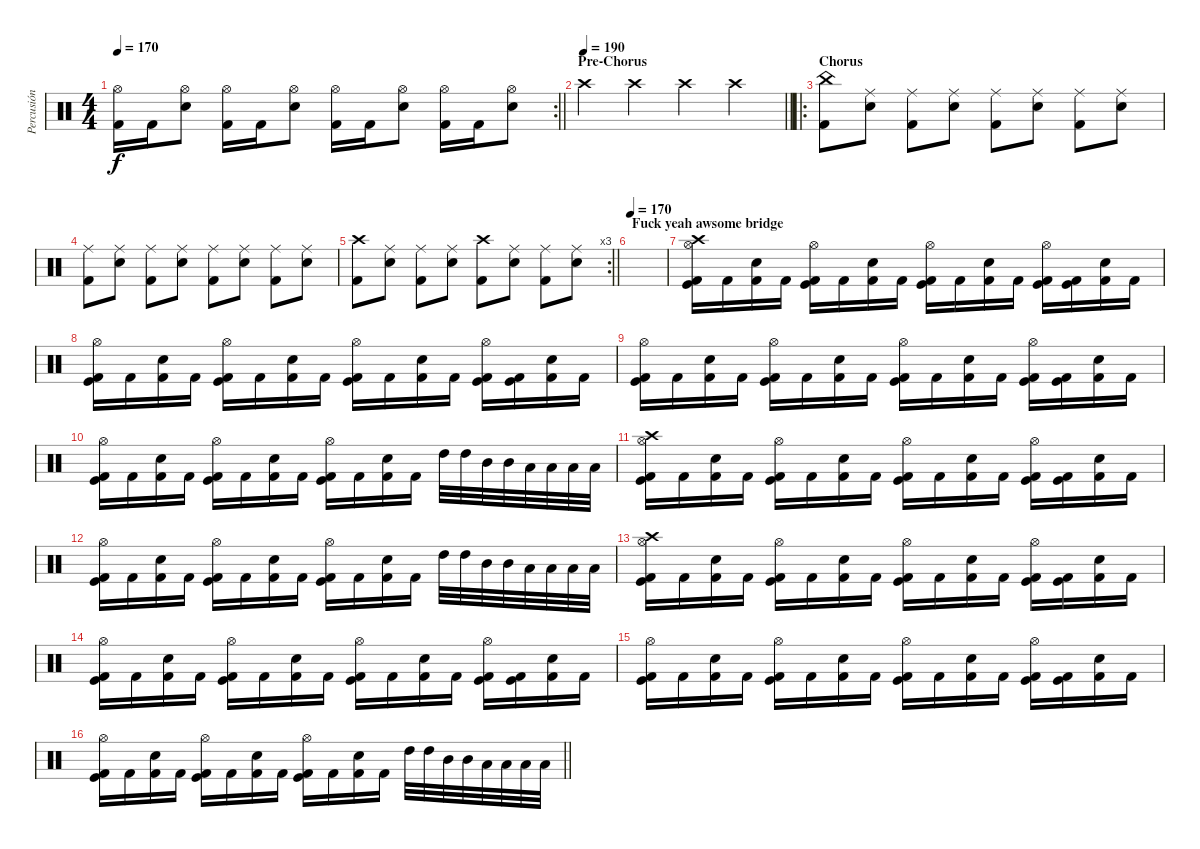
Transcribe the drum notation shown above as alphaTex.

\track ("Percusión" "Percusión") {instrument percussion}
\staff {score}
\articulation defaults
\rc 2
\ts (4 4)
\tempo 170
\clef neutral
\barLineRight lightlight
\ks c
("Hi-Hat (open)" "Kick (hit) 2").16{dy f} "Kick (hit) 2".16 ("Hi-Hat (open)" "Snare (hit) 2").8 ("Hi-Hat (open)" "Kick (hit) 2").16 "Kick (hit) 2".16 ("Hi-Hat (open)" "Snare (hit) 2").8 ("Hi-Hat (open)" "Kick (hit) 2").16 "Kick (hit) 2".16 ("Hi-Hat (open)" "Snare (hit) 2").8 ("Hi-Hat (open)" "Kick (hit) 2").16 "Kick (hit) 2".16 ("Hi-Hat (open)" "Snare (hit) 2").8 |
\section ("" "Pre-Chorus")
\tempo 190
\barLineRight lightlight "Crash high (hit)".4 "Crash high (hit)".4 "Crash high (hit)".4 "Crash high (hit)".4
|
\ro
\section ("" "Chorus")
("Kick (hit) 2" "China (hit)").8 ("Snare (hit) 2" "Ride (middle)").8 ("Kick (hit) 2" "Ride (middle)").8 ("Snare (hit) 2" "Ride (middle)").8 ("Kick (hit) 2" "Ride (middle)").8 ("Snare (hit) 2" "Ride (middle)").8 ("Kick (hit) 2" "Ride (middle)").8 ("Snare (hit) 2" "Ride (middle)").8 |
("Kick (hit) 2" "Ride (middle)").8 ("Snare (hit) 2" "Ride (middle)").8 ("Kick (hit) 2" "Ride (middle)").8 ("Snare (hit) 2" "Ride (middle)").8 ("Kick (hit) 2" "Ride (middle)").8 ("Snare (hit) 2" "Ride (middle)").8 ("Kick (hit) 2" "Ride (middle)").8 ("Snare (hit) 2" "Ride (middle)").8 |
\rc 3
\barLineRight lightlight
("Kick (hit) 2" "Crash high (hit)").8 ("Snare (hit) 2" "Ride (middle)").8 ("Kick (hit) 2" "Ride (middle)").8 ("Snare (hit) 2" "Ride (middle)").8 ("Kick (hit) 2" "Crash high (hit)").8 ("Snare (hit) 2" "Ride (middle)").8 ("Kick (hit) 2" "Ride (middle)").8 ("Snare (hit) 2" "Ride (middle)").8 |
\section ("" "Fuck yeah awsome bridge")
\tempo 170
|
("Crash high (hit)" "Hi-Hat (open)" "Kick (hit)" "Kick (hit) 2").16 "Kick (hit) 2".16 ("Snare (hit) 2" "Kick (hit) 2").16 "Kick (hit) 2".16 ("Hi-Hat (open)" "Kick (hit)" "Kick (hit) 2").16 "Kick (hit) 2".16 ("Snare (hit) 2" "Kick (hit) 2").16 "Kick (hit) 2".16 ("Hi-Hat (open)" "Kick (hit)" "Kick (hit) 2").16 "Kick (hit) 2".16 ("Snare (hit) 2" "Kick (hit) 2").16 "Kick (hit) 2".16 ("Hi-Hat (open)" "Kick (hit)" "Kick (hit) 2").16 ("Kick (hit)" "Kick (hit) 2").16 ("Snare (hit) 2" "Kick (hit) 2").16 "Kick (hit) 2".16 |
("Hi-Hat (open)" "Kick (hit)" "Kick (hit) 2").16 "Kick (hit) 2".16 ("Snare (hit) 2" "Kick (hit) 2").16 "Kick (hit) 2".16 ("Hi-Hat (open)" "Kick (hit)" "Kick (hit) 2").16 "Kick (hit) 2".16 ("Snare (hit) 2" "Kick (hit) 2").16 "Kick (hit) 2".16 ("Hi-Hat (open)" "Kick (hit)" "Kick (hit) 2").16 "Kick (hit) 2".16 ("Snare (hit) 2" "Kick (hit) 2").16 "Kick (hit) 2".16 ("Hi-Hat (open)" "Kick (hit)" "Kick (hit) 2").16 ("Kick (hit)" "Kick (hit) 2").16 ("Snare (hit) 2" "Kick (hit) 2").16 "Kick (hit) 2".16 |
("Hi-Hat (open)" "Kick (hit)" "Kick (hit) 2").16 "Kick (hit) 2".16 ("Snare (hit) 2" "Kick (hit) 2").16 "Kick (hit) 2".16 ("Hi-Hat (open)" "Kick (hit)" "Kick (hit) 2").16 "Kick (hit) 2".16 ("Snare (hit) 2" "Kick (hit) 2").16 "Kick (hit) 2".16 ("Hi-Hat (open)" "Kick (hit)" "Kick (hit) 2").16 "Kick (hit) 2".16 ("Snare (hit) 2" "Kick (hit) 2").16 "Kick (hit) 2".16 ("Hi-Hat (open)" "Kick (hit)" "Kick (hit) 2").16 ("Kick (hit)" "Kick (hit) 2").16 ("Snare (hit) 2" "Kick (hit) 2").16 "Kick (hit) 2".16 |
("Hi-Hat (open)" "Kick (hit)" "Kick (hit) 2").16 "Kick (hit) 2".16 ("Snare (hit) 2" "Kick (hit) 2").16 "Kick (hit) 2".16 ("Hi-Hat (open)" "Kick (hit)" "Kick (hit) 2").16 "Kick (hit) 2".16 ("Snare (hit) 2" "Kick (hit) 2").16 "Kick (hit) 2".16 ("Hi-Hat (open)" "Kick (hit)" "Kick (hit) 2").16 "Kick (hit) 2".16 ("Snare (hit) 2" "Kick (hit) 2").16 "Kick (hit) 2".16 "High Tom (hit)".32 "High Tom (hit)".32 "Mid Tom (hit)".32 "Mid Tom (hit)".32 "Low Tom (hit)".32 "Low Tom (hit)".32 "Low Tom (hit)".32 "Low Tom (hit)".32 |
("Crash high (hit)" "Hi-Hat (open)" "Kick (hit)" "Kick (hit) 2").16 "Kick (hit) 2".16 ("Snare (hit) 2" "Kick (hit) 2").16 "Kick (hit) 2".16 ("Hi-Hat (open)" "Kick (hit)" "Kick (hit) 2").16 "Kick (hit) 2".16 ("Snare (hit) 2" "Kick (hit) 2").16 "Kick (hit) 2".16 ("Hi-Hat (open)" "Kick (hit)" "Kick (hit) 2").16 "Kick (hit) 2".16 ("Snare (hit) 2" "Kick (hit) 2").16 "Kick (hit) 2".16 ("Hi-Hat (open)" "Kick (hit)" "Kick (hit) 2").16 ("Kick (hit)" "Kick (hit) 2").16 ("Snare (hit) 2" "Kick (hit) 2").16 "Kick (hit) 2".16 |
("Hi-Hat (open)" "Kick (hit)" "Kick (hit) 2").16 "Kick (hit) 2".16 ("Snare (hit) 2" "Kick (hit) 2").16 "Kick (hit) 2".16 ("Hi-Hat (open)" "Kick (hit)" "Kick (hit) 2").16 "Kick (hit) 2".16 ("Snare (hit) 2" "Kick (hit) 2").16 "Kick (hit) 2".16 ("Hi-Hat (open)" "Kick (hit)" "Kick (hit) 2").16 "Kick (hit) 2".16 ("Snare (hit) 2" "Kick (hit) 2").16 "Kick (hit) 2".16 "High Tom (hit)".32 "High Tom (hit)".32 "Mid Tom (hit)".32 "Mid Tom (hit)".32 "Low Tom (hit)".32 "Low Tom (hit)".32 "Low Tom (hit)".32 "Low Tom (hit)".32 |
("Crash high (hit)" "Hi-Hat (open)" "Kick (hit)" "Kick (hit) 2").16 "Kick (hit) 2".16 ("Snare (hit) 2" "Kick (hit) 2").16 "Kick (hit) 2".16 ("Hi-Hat (open)" "Kick (hit)" "Kick (hit) 2").16 "Kick (hit) 2".16 ("Snare (hit) 2" "Kick (hit) 2").16 "Kick (hit) 2".16 ("Hi-Hat (open)" "Kick (hit)" "Kick (hit) 2").16 "Kick (hit) 2".16 ("Snare (hit) 2" "Kick (hit) 2").16 "Kick (hit) 2".16 ("Hi-Hat (open)" "Kick (hit)" "Kick (hit) 2").16 ("Kick (hit)" "Kick (hit) 2").16 ("Snare (hit) 2" "Kick (hit) 2").16 "Kick (hit) 2".16 |
("Hi-Hat (open)" "Kick (hit)" "Kick (hit) 2").16 "Kick (hit) 2".16 ("Snare (hit) 2" "Kick (hit) 2").16 "Kick (hit) 2".16 ("Hi-Hat (open)" "Kick (hit)" "Kick (hit) 2").16 "Kick (hit) 2".16 ("Snare (hit) 2" "Kick (hit) 2").16 "Kick (hit) 2".16 ("Hi-Hat (open)" "Kick (hit)" "Kick (hit) 2").16 "Kick (hit) 2".16 ("Snare (hit) 2" "Kick (hit) 2").16 "Kick (hit) 2".16 ("Hi-Hat (open)" "Kick (hit)" "Kick (hit) 2").16 ("Kick (hit)" "Kick (hit) 2").16 ("Snare (hit) 2" "Kick (hit) 2").16 "Kick (hit) 2".16 |
("Hi-Hat (open)" "Kick (hit)" "Kick (hit) 2").16 "Kick (hit) 2".16 ("Snare (hit) 2" "Kick (hit) 2").16 "Kick (hit) 2".16 ("Hi-Hat (open)" "Kick (hit)" "Kick (hit) 2").16 "Kick (hit) 2".16 ("Snare (hit) 2" "Kick (hit) 2").16 "Kick (hit) 2".16 ("Hi-Hat (open)" "Kick (hit)" "Kick (hit) 2").16 "Kick (hit) 2".16 ("Snare (hit) 2" "Kick (hit) 2").16 "Kick (hit) 2".16 ("Hi-Hat (open)" "Kick (hit)" "Kick (hit) 2").16 ("Kick (hit)" "Kick (hit) 2").16 ("Snare (hit) 2" "Kick (hit) 2").16 "Kick (hit) 2".16 |
\barLineRight lightlight
("Hi-Hat (open)" "Kick (hit)" "Kick (hit) 2").16 "Kick (hit) 2".16 ("Snare (hit) 2" "Kick (hit) 2").16 "Kick (hit) 2".16 ("Hi-Hat (open)" "Kick (hit)" "Kick (hit) 2").16 "Kick (hit) 2".16 ("Snare (hit) 2" "Kick (hit) 2").16 "Kick (hit) 2".16 ("Hi-Hat (open)" "Kick (hit)" "Kick (hit) 2").16 "Kick (hit) 2".16 ("Snare (hit) 2" "Kick (hit) 2").16 "Kick (hit) 2".16 "High Tom (hit)".32 "High Tom (hit)".32 "Mid Tom (hit)".32 "Mid Tom (hit)".32 "Low Tom (hit)".32 "Low Tom (hit)".32 "Low Tom (hit)".32 "Low Tom (hit)".32
